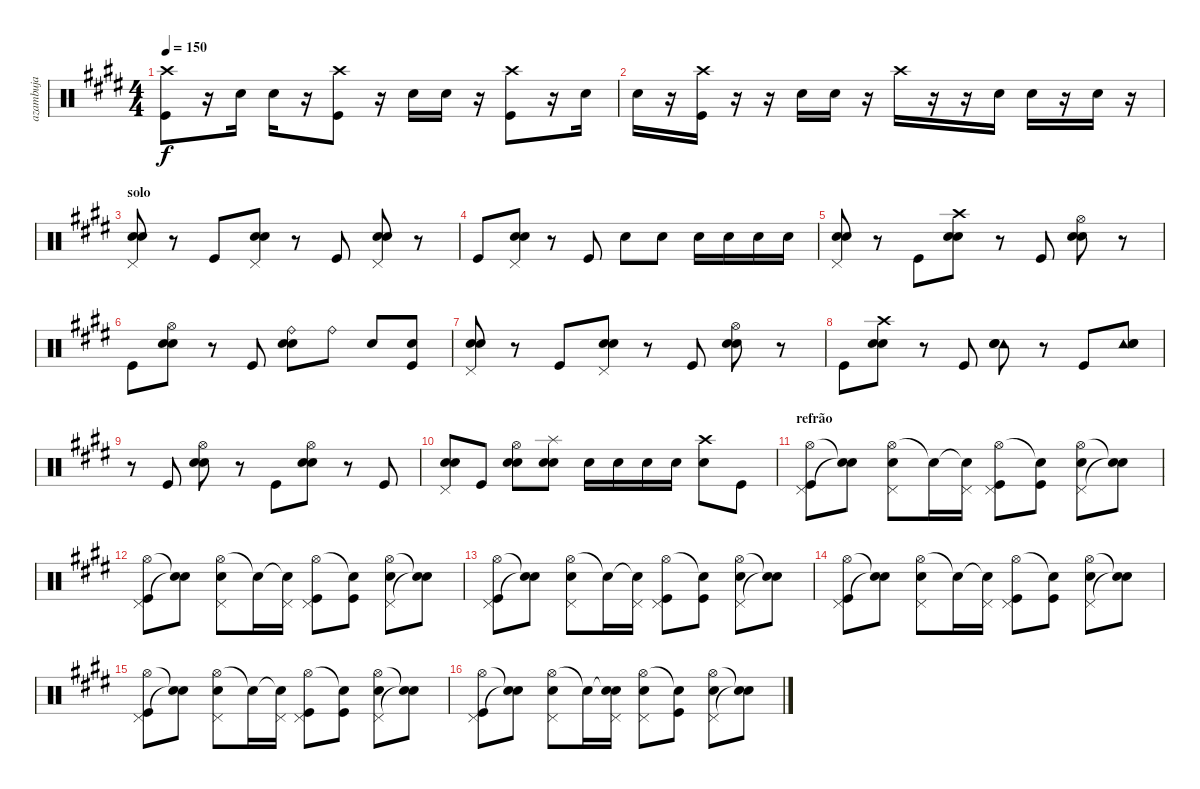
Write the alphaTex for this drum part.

\track ("azambuja" "azambuja") {instrument percussion}
\staff {score}
\articulation defaults
\ts (4 4)
\tempo 150
\clef neutral
\ks e
("Crash high (hit)" "Kick (hit)").8{dy f} r.16 "Snare (hit) 2".16 "Snare (hit) 2".16 r.16 ("Crash high (hit)" "Kick (hit)").8 r.16 "Snare (hit) 2".16 "Snare (hit) 2".16 r.16 ("Crash high (hit)" "Kick (hit)").8 r.16 "Snare (hit) 2".16 |
"Snare (hit) 2".16 r.16 ("Crash high (hit)" "Kick (hit)").16 r.16 r.16 "Snare (hit) 2".16 "Snare (hit) 2".16 r.16 "Crash high (hit)".16 r.16 r.16 "Snare (hit) 2".16 "Snare (hit) 2".16 r.16 "Snare (hit) 2".16 r.16 |
\section ("" "solo")
("Pedal Hi-Hat (hit)" "Snare (hit) 2" "Snare (hit) 2").8 r.8 "Kick (hit)".8 ("Pedal Hi-Hat (hit)" "Snare (hit) 2" "Snare (hit) 2").8 r.8 "Kick (hit)".8 ("Pedal Hi-Hat (hit)" "Snare (hit) 2" "Snare (hit) 2").8 r.8 |
"Kick (hit)".8 ("Pedal Hi-Hat (hit)" "Snare (hit) 2" "Snare (hit) 2").8 r.8 "Kick (hit)".8 "Snare (hit) 2".8 "Snare (hit) 2".8 "Snare (hit) 2".16 "Snare (hit) 2".16 "Snare (hit) 2".16 "Snare (hit) 2".16 |
("Pedal Hi-Hat (hit)" "Snare (hit) 2" "Snare (hit) 2").8 r.8 "Kick (hit)".8 ("Crash high (hit)" "Snare (hit) 2" "Snare (hit) 2").8 r.8 "Kick (hit)".8 ("Hi-Hat (open)" "Snare (hit) 2" "Snare (hit) 2").8 r.8 |
"Kick (hit)".8 ("Hi-Hat (open)" "Snare (hit) 2" "Snare (hit) 2").8 r.8 "Kick (hit)".8 ("Ride (bell)" "Snare (hit) 2" "Snare (hit) 2").8 "Ride (bell)".8 "Snare (hit) 2".8 ("Snare (hit) 2" "Kick (hit)").8 |
("Pedal Hi-Hat (hit)" "Snare (hit) 2" "Snare (hit) 2").8 r.8 "Kick (hit)".8 ("Pedal Hi-Hat (hit)" "Snare (hit) 2" "Snare (hit) 2").8 r.8 "Kick (hit)".8 ("Hi-Hat (open)" "Snare (hit) 2" "Snare (hit) 2").8 r.8 |
"Kick (hit)".8 ("Crash high (hit)" "Snare (hit) 2" "Snare (hit) 2").8 r.8 "Kick (hit)".8 ("Tambourine (hit)" "Snare (hit) 2" "Snare (hit) 2").8 r.8 "Kick (hit)".8 ("Tambourine (hit)" "Snare (hit) 2" "Snare (hit) 2").8 |
r.8 "Kick (hit)".8 ("Hi-Hat (open)" "Snare (hit) 2" "Snare (hit) 2").8 r.8 "Kick (hit)".8 ("Hi-Hat (open)" "Snare (hit) 2" "Snare (hit) 2").8 r.8 "Kick (hit)".8 |
("Pedal Hi-Hat (hit)" "Snare (hit) 2" "Snare (hit) 2").8 "Kick (hit)".8 ("Hi-Hat (open)" "Snare (hit) 2" "Snare (hit) 2").8 ("Splash (hit)" "Snare (hit) 2" "Snare (hit) 2").8 "Snare (hit) 2".16 "Snare (hit) 2".16 "Snare (hit) 2".16 "Snare (hit) 2".16 ("Crash high (hit)" "Snare (hit) 2").8 "Kick (hit)".8 |
\section ("" "refrão")
("Hi-Hat (open)" "Pedal Hi-Hat (hit)" "Kick (hit)").8 ("Snare (hit)"{t} "Snare (hit)"{t}).8 ("Hi-Hat (open)" "Pedal Hi-Hat (hit)" "Snare (hit) 2").8 "Snare (hit)"{t}.16 ("Snare (hit)"{t} "Pedal Hi-Hat (hit)").16 ("Hi-Hat (open)" "Pedal Hi-Hat (hit)" "Kick (hit)").8 ("Snare (hit)"{t} "Kick (hit)").8 ("Hi-Hat (open)" "Pedal Hi-Hat (hit)" "Snare (hit) 2").8 ("Snare (hit)"{t} "Snare (hit)"{t}).8 |
("Hi-Hat (open)" "Pedal Hi-Hat (hit)" "Kick (hit)").8 ("Snare (hit)"{t} "Snare (hit)"{t}).8 ("Hi-Hat (open)" "Pedal Hi-Hat (hit)" "Snare (hit) 2").8 "Snare (hit)"{t}.16 ("Snare (hit)"{t} "Pedal Hi-Hat (hit)").16 ("Hi-Hat (open)" "Pedal Hi-Hat (hit)" "Kick (hit)").8 ("Snare (hit)"{t} "Kick (hit)").8 ("Hi-Hat (open)" "Pedal Hi-Hat (hit)" "Snare (hit) 2").8 ("Snare (hit)"{t} "Snare (hit)"{t}).8 |
("Hi-Hat (open)" "Pedal Hi-Hat (hit)" "Kick (hit)").8 ("Snare (hit)"{t} "Snare (hit)"{t}).8 ("Hi-Hat (open)" "Pedal Hi-Hat (hit)" "Snare (hit) 2").8 "Snare (hit)"{t}.16 ("Snare (hit)"{t} "Pedal Hi-Hat (hit)").16 ("Hi-Hat (open)" "Pedal Hi-Hat (hit)" "Kick (hit)").8 ("Snare (hit)"{t} "Kick (hit)").8 ("Hi-Hat (open)" "Pedal Hi-Hat (hit)" "Snare (hit) 2").8 ("Snare (hit)"{t} "Snare (hit)"{t}).8 |
("Hi-Hat (open)" "Pedal Hi-Hat (hit)" "Kick (hit)").8 ("Snare (hit)"{t} "Snare (hit)"{t}).8 ("Hi-Hat (open)" "Pedal Hi-Hat (hit)" "Snare (hit) 2").8 "Snare (hit)"{t}.16 ("Snare (hit)"{t} "Pedal Hi-Hat (hit)").16 ("Hi-Hat (open)" "Pedal Hi-Hat (hit)" "Kick (hit)").8 ("Snare (hit)"{t} "Kick (hit)").8 ("Hi-Hat (open)" "Pedal Hi-Hat (hit)" "Snare (hit) 2").8 ("Snare (hit)"{t} "Snare (hit)"{t}).8 |
("Hi-Hat (open)" "Pedal Hi-Hat (hit)" "Kick (hit)").8 ("Snare (hit)"{t} "Snare (hit)"{t}).8 ("Hi-Hat (open)" "Pedal Hi-Hat (hit)" "Snare (hit) 2").8 "Snare (hit)"{t}.16 ("Snare (hit)"{t} "Pedal Hi-Hat (hit)").16 ("Hi-Hat (open)" "Pedal Hi-Hat (hit)" "Kick (hit)").8 ("Snare (hit)"{t} "Kick (hit)").8 ("Hi-Hat (open)" "Pedal Hi-Hat (hit)" "Snare (hit) 2").8 ("Snare (hit)"{t} "Snare (hit)"{t}).8 |
("Hi-Hat (open)" "Pedal Hi-Hat (hit)" "Kick (hit)").8 ("Snare (hit)"{t} "Snare (hit)"{t}).8 ("Hi-Hat (open)" "Pedal Hi-Hat (hit)" "Snare (hit) 2").8 "Snare (hit)"{t}.16 ("Snare (hit)"{t} "Pedal Hi-Hat (hit)" "Snare (hit) 2").16 ("Hi-Hat (open)" "Pedal Hi-Hat (hit)" "Snare (hit) 2").8 ("Snare (hit)"{t} "Kick (hit)").8 ("Hi-Hat (open)" "Pedal Hi-Hat (hit)" "Snare (hit) 2").8 ("Snare (hit)"{t} "Snare (hit)"{t}).8
